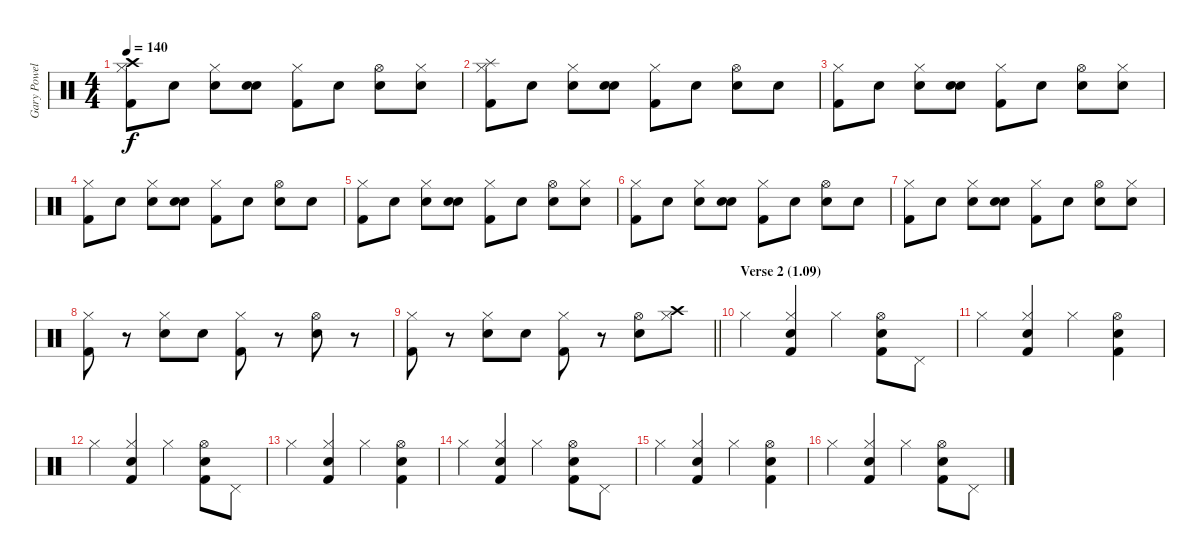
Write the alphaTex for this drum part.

\track ("Gary Powell (Drums)" "Gary Powel") {instrument percussion}
\staff {score}
\articulation defaults
\ts (4 4)
\tempo 140
\clef neutral
\ks c
("Kick (hit) 2" "Crash high (hit)" "Hi-Hat (closed)").8{dy f} "Snare (hit)".8 ("Snare (hit) 2" "Hi-Hat (closed)").8 ("Snare (hit)" "Snare (hit) 2").8 ("Kick (hit) 2" "Hi-Hat (closed)").8 "Snare (hit)".8 ("Snare (hit) 2" "Hi-Hat (open)").8 ("Snare (hit)" "Hi-Hat (closed)").8 |
("Kick (hit) 2" "Splash (hit)" "Hi-Hat (closed)").8 "Snare (hit)".8 ("Snare (hit) 2" "Hi-Hat (closed)").8 ("Snare (hit)" "Snare (hit) 2").8 ("Kick (hit) 2" "Hi-Hat (closed)").8 "Snare (hit)".8 ("Snare (hit) 2" "Hi-Hat (open)").8 "Snare (hit)".8 |
("Kick (hit) 2" "Hi-Hat (closed)").8 "Snare (hit)".8 ("Snare (hit) 2" "Hi-Hat (closed)").8 ("Snare (hit)" "Snare (hit) 2").8 ("Kick (hit) 2" "Hi-Hat (closed)").8 "Snare (hit)".8 ("Snare (hit) 2" "Hi-Hat (open)").8 ("Snare (hit)" "Hi-Hat (closed)").8 |
("Kick (hit) 2" "Hi-Hat (closed)").8 "Snare (hit)".8 ("Snare (hit) 2" "Hi-Hat (closed)").8 ("Snare (hit)" "Snare (hit) 2").8 ("Kick (hit) 2" "Hi-Hat (closed)").8 "Snare (hit)".8 ("Snare (hit) 2" "Hi-Hat (open)").8 "Snare (hit)".8 |
("Kick (hit) 2" "Hi-Hat (closed)").8 "Snare (hit)".8 ("Snare (hit) 2" "Hi-Hat (closed)").8 ("Snare (hit)" "Snare (hit) 2").8 ("Kick (hit) 2" "Hi-Hat (closed)").8 "Snare (hit)".8 ("Snare (hit) 2" "Hi-Hat (open)").8 ("Snare (hit)" "Hi-Hat (closed)").8 |
("Kick (hit) 2" "Hi-Hat (closed)").8 "Snare (hit)".8 ("Snare (hit) 2" "Hi-Hat (closed)").8 ("Snare (hit)" "Snare (hit) 2").8 ("Kick (hit) 2" "Hi-Hat (closed)").8 "Snare (hit)".8 ("Snare (hit) 2" "Hi-Hat (open)").8 "Snare (hit)".8 |
("Kick (hit) 2" "Hi-Hat (closed)").8 "Snare (hit)".8 ("Snare (hit) 2" "Hi-Hat (closed)").8 ("Snare (hit)" "Snare (hit) 2").8 ("Kick (hit) 2" "Hi-Hat (closed)").8 "Snare (hit)".8 ("Snare (hit) 2" "Hi-Hat (open)").8 ("Snare (hit)" "Hi-Hat (closed)").8 |
("Kick (hit) 2" "Hi-Hat (closed)").8 r.8 ("Snare (hit) 2" "Hi-Hat (closed)").8 "Snare (hit) 2".8 ("Kick (hit) 2" "Hi-Hat (closed)").8 r.8 ("Snare (hit) 2" "Hi-Hat (open)").8 r.8 |
\barLineRight lightlight
("Kick (hit) 2" "Hi-Hat (closed)").8 r.8 ("Snare (hit) 2" "Hi-Hat (closed)").8 "Snare (hit) 2".8 ("Kick (hit) 2" "Hi-Hat (closed)").8 r.8 ("Snare (hit) 2" "Hi-Hat (open)").8 ("Crash high (hit)" "Hi-Hat (closed)").8 |
\section ("" "Verse 2 (1.09)")
"Hi-Hat (closed)".4 ("Kick (hit) 2" "Hi-Hat (closed)" "Snare (hit) 2").4 "Hi-Hat (closed)".4 ("Kick (hit) 2" "Hi-Hat (open)" "Snare (hit) 2").8 "Pedal Hi-Hat (hit)".8 |
"Hi-Hat (closed)".4 ("Kick (hit) 2" "Hi-Hat (closed)" "Snare (hit) 2").4 "Hi-Hat (closed)".4 ("Kick (hit) 2" "Hi-Hat (open)" "Snare (hit) 2").4 |
"Hi-Hat (closed)".4 ("Kick (hit) 2" "Hi-Hat (closed)" "Snare (hit) 2").4 "Hi-Hat (closed)".4 ("Kick (hit) 2" "Hi-Hat (open)" "Snare (hit) 2").8 "Pedal Hi-Hat (hit)".8 |
"Hi-Hat (closed)".4 ("Kick (hit) 2" "Hi-Hat (closed)" "Snare (hit) 2").4 "Hi-Hat (closed)".4 ("Kick (hit) 2" "Hi-Hat (open)" "Snare (hit) 2").4 |
"Hi-Hat (closed)".4 ("Kick (hit) 2" "Hi-Hat (closed)" "Snare (hit) 2").4 "Hi-Hat (closed)".4 ("Kick (hit) 2" "Hi-Hat (open)" "Snare (hit) 2").8 "Pedal Hi-Hat (hit)".8 |
"Hi-Hat (closed)".4 ("Kick (hit) 2" "Hi-Hat (closed)" "Snare (hit) 2").4 "Hi-Hat (closed)".4 ("Kick (hit) 2" "Hi-Hat (open)" "Snare (hit) 2").4 |
"Hi-Hat (closed)".4 ("Kick (hit) 2" "Hi-Hat (closed)" "Snare (hit) 2").4 "Hi-Hat (closed)".4 ("Kick (hit) 2" "Hi-Hat (open)" "Snare (hit) 2").8 "Pedal Hi-Hat (hit)".8
